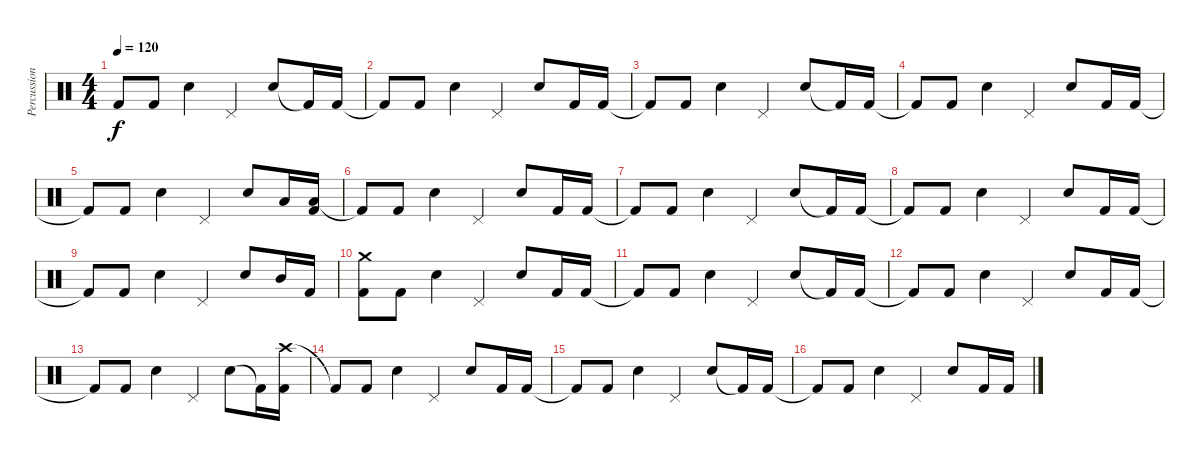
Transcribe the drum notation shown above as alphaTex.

\track ("Percussioni" "Percussion") {instrument percussion}
\staff {score}
\articulation defaults
\ts (4 4)
\tempo 120
\clef neutral
\ks c "Kick (hit) 2"{t}.8{dy f} "Kick (hit) 2".8 "Electric Snare (hit)".4 "Pedal Hi-Hat (hit)".4 "Electric Snare (hit)".8 "Kick (hit) 2"{t}.16 "Kick (hit) 2".16
|
"Kick (hit) 2"{t}.8 "Kick (hit) 2".8 "Electric Snare (hit)".4 "Pedal Hi-Hat (hit)".4 "Electric Snare (hit)".8 "Kick (hit) 2".16 "Kick (hit) 2".16 |
"Kick (hit) 2"{t}.8 "Kick (hit) 2".8 "Electric Snare (hit)".4 "Pedal Hi-Hat (hit)".4 "Electric Snare (hit)".8 "Kick (hit) 2"{t}.16 "Kick (hit) 2".16 |
"Kick (hit) 2"{t}.8 "Kick (hit) 2".8 "Electric Snare (hit)".4 "Pedal Hi-Hat (hit)".4 "Electric Snare (hit)".8 "Kick (hit) 2".16 "Kick (hit) 2".16 |
"Kick (hit) 2"{t}.8 "Kick (hit) 2".8 "Electric Snare (hit)".4 "Pedal Hi-Hat (hit)".4 "Electric Snare (hit)".8 "Low Tom (hit)".16 ("Low Tom (hit)" "Kick (hit) 2").16 |
"Kick (hit) 2"{t}.8 "Kick (hit) 2".8 "Electric Snare (hit)".4 "Pedal Hi-Hat (hit)".4 "Electric Snare (hit)".8 "Kick (hit) 2".16 "Kick (hit) 2".16 |
"Kick (hit) 2"{t}.8 "Kick (hit) 2".8 "Electric Snare (hit)".4 "Pedal Hi-Hat (hit)".4 "Electric Snare (hit)".8 "Kick (hit) 2"{t}.16 "Kick (hit) 2".16 |
"Kick (hit) 2"{t}.8 "Kick (hit) 2".8 "Electric Snare (hit)".4 "Pedal Hi-Hat (hit)".4 "Electric Snare (hit)".8 "Kick (hit) 2".16 "Kick (hit) 2".16 |
"Kick (hit) 2"{t}.8 "Kick (hit) 2".8 "Electric Snare (hit)".4 "Pedal Hi-Hat (hit)".4 "Electric Snare (hit)".8 "Mid Tom (hit)".16 "Kick (hit) 2".16 |
("Crash medium (hit)" "Kick (hit) 2").8 "Kick (hit) 2".8 "Electric Snare (hit)".4 "Pedal Hi-Hat (hit)".4 "Electric Snare (hit)".8 "Kick (hit) 2".16 "Kick (hit) 2".16 |
"Kick (hit) 2"{t}.8 "Kick (hit) 2".8 "Electric Snare (hit)".4 "Pedal Hi-Hat (hit)".4 "Electric Snare (hit)".8 "Kick (hit) 2"{t}.16 "Kick (hit) 2".16 |
"Kick (hit) 2"{t}.8 "Kick (hit) 2".8 "Electric Snare (hit)".4 "Pedal Hi-Hat (hit)".4 "Electric Snare (hit)".8 "Kick (hit) 2".16 "Kick (hit) 2".16 |
"Kick (hit) 2"{t}.8 "Kick (hit) 2".8 "Electric Snare (hit)".4 "Pedal Hi-Hat (hit)".4 "Electric Snare (hit)".8 "Kick (hit) 2"{t}.16 ("Crash high (hit)" "Kick (hit) 2").16 |
"Kick (hit) 2"{t}.8 "Kick (hit) 2".8 "Electric Snare (hit)".4 "Pedal Hi-Hat (hit)".4 "Electric Snare (hit)".8 "Kick (hit) 2".16 "Kick (hit) 2".16 |
"Kick (hit) 2"{t}.8 "Kick (hit) 2".8 "Electric Snare (hit)".4 "Pedal Hi-Hat (hit)".4 "Electric Snare (hit)".8 "Kick (hit) 2"{t}.16 "Kick (hit) 2".16 |
"Kick (hit) 2"{t}.8 "Kick (hit) 2".8 "Electric Snare (hit)".4 "Pedal Hi-Hat (hit)".4 "Electric Snare (hit)".8 "Kick (hit) 2".16 "Kick (hit) 2".16
